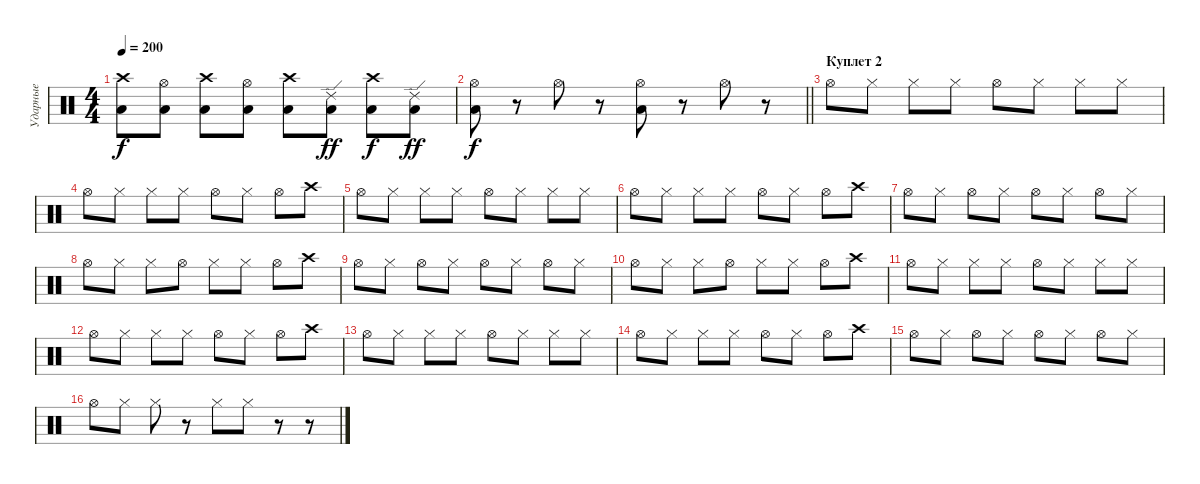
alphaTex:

\track ("Ударные" "Ударные") {instrument percussion}
\staff {score}
\articulation defaults
\ts (4 4)
\tempo 200
\clef neutral
\ks c
("Crash high (hit)" "Low Tom (hit)").8{dy f} ("Hi-Hat (open)" "Low Floor Tom (hit)").8 ("Crash high (hit)" "Low Tom (hit)").8 ("Hi-Hat (open)" "Low Floor Tom (hit)").8 ("Crash high (hit)" "Low Tom (hit)").8 ("Ride (edge) 2" "Low Floor Tom (hit)").8{dy ff} ("Crash high (hit)" "Low Tom (hit)").8{dy f} ("Ride (edge) 2" "Low Floor Tom (hit)").8{dy ff} |
\barLineRight lightlight
("Hi-Hat (open)" "Low Tom (hit)").8{dy f} r.8 "Hi-Hat (open)".8 r.8 ("Hi-Hat (open)" "Low Tom (hit)").8 r.8 "Hi-Hat (open)".8 r.8 |
\section ("" "Куплет 2")
"Hi-Hat (open)".8 "Hi-Hat (closed)".8 "Hi-Hat (closed)".8 "Hi-Hat (closed)".8 "Hi-Hat (open)".8 "Hi-Hat (closed)".8 "Hi-Hat (closed)".8 "Hi-Hat (closed)".8 |
"Hi-Hat (open)".8 "Hi-Hat (closed)".8 "Hi-Hat (closed)".8 "Hi-Hat (closed)".8 "Hi-Hat (open)".8 "Hi-Hat (closed)".8 "Hi-Hat (open)".8 "Crash high (hit)".8 |
"Hi-Hat (open)".8 "Hi-Hat (closed)".8 "Hi-Hat (closed)".8 "Hi-Hat (closed)".8 "Hi-Hat (open)".8 "Hi-Hat (closed)".8 "Hi-Hat (closed)".8 "Hi-Hat (closed)".8 |
"Hi-Hat (open)".8 "Hi-Hat (closed)".8 "Hi-Hat (closed)".8 "Hi-Hat (closed)".8 "Hi-Hat (open)".8 "Hi-Hat (closed)".8 "Hi-Hat (open)".8 "Crash high (hit)".8 |
"Hi-Hat (open)".8 "Hi-Hat (closed)".8 "Hi-Hat (open)".8 "Hi-Hat (closed)".8 "Hi-Hat (open)".8 "Hi-Hat (closed)".8 "Hi-Hat (open)".8 "Hi-Hat (closed)".8 |
"Hi-Hat (open)".8 "Hi-Hat (closed)".8 "Hi-Hat (closed)".8 "Hi-Hat (open)".8 "Hi-Hat (closed)".8 "Hi-Hat (closed)".8 "Hi-Hat (open)".8 "Crash high (hit)".8 |
"Hi-Hat (open)".8 "Hi-Hat (closed)".8 "Hi-Hat (open)".8 "Hi-Hat (closed)".8 "Hi-Hat (open)".8 "Hi-Hat (closed)".8 "Hi-Hat (open)".8 "Hi-Hat (closed)".8 |
"Hi-Hat (open)".8 "Hi-Hat (closed)".8 "Hi-Hat (closed)".8 "Hi-Hat (open)".8 "Hi-Hat (closed)".8 "Hi-Hat (closed)".8 "Hi-Hat (open)".8 "Crash high (hit)".8 |
"Hi-Hat (open)".8 "Hi-Hat (closed)".8 "Hi-Hat (closed)".8 "Hi-Hat (closed)".8 "Hi-Hat (open)".8 "Hi-Hat (closed)".8 "Hi-Hat (closed)".8 "Hi-Hat (closed)".8 |
"Hi-Hat (open)".8 "Hi-Hat (closed)".8 "Hi-Hat (closed)".8 "Hi-Hat (closed)".8 "Hi-Hat (open)".8 "Hi-Hat (closed)".8 "Hi-Hat (open)".8 "Crash high (hit)".8 |
"Hi-Hat (open)".8 "Hi-Hat (closed)".8 "Hi-Hat (closed)".8 "Hi-Hat (closed)".8 "Hi-Hat (open)".8 "Hi-Hat (closed)".8 "Hi-Hat (closed)".8 "Hi-Hat (closed)".8 |
"Hi-Hat (open)".8 "Hi-Hat (closed)".8 "Hi-Hat (closed)".8 "Hi-Hat (closed)".8 "Hi-Hat (open)".8 "Hi-Hat (closed)".8 "Hi-Hat (open)".8 "Crash high (hit)".8 |
"Hi-Hat (open)".8 "Hi-Hat (closed)".8 "Hi-Hat (open)".8 "Hi-Hat (closed)".8 "Hi-Hat (open)".8 "Hi-Hat (closed)".8 "Hi-Hat (open)".8 "Hi-Hat (closed)".8 |
"Hi-Hat (open)".8 "Hi-Hat (closed)".8 "Hi-Hat (closed)".8 r.8 "Hi-Hat (closed)".8 "Hi-Hat (closed)".8 r.8 r.8
